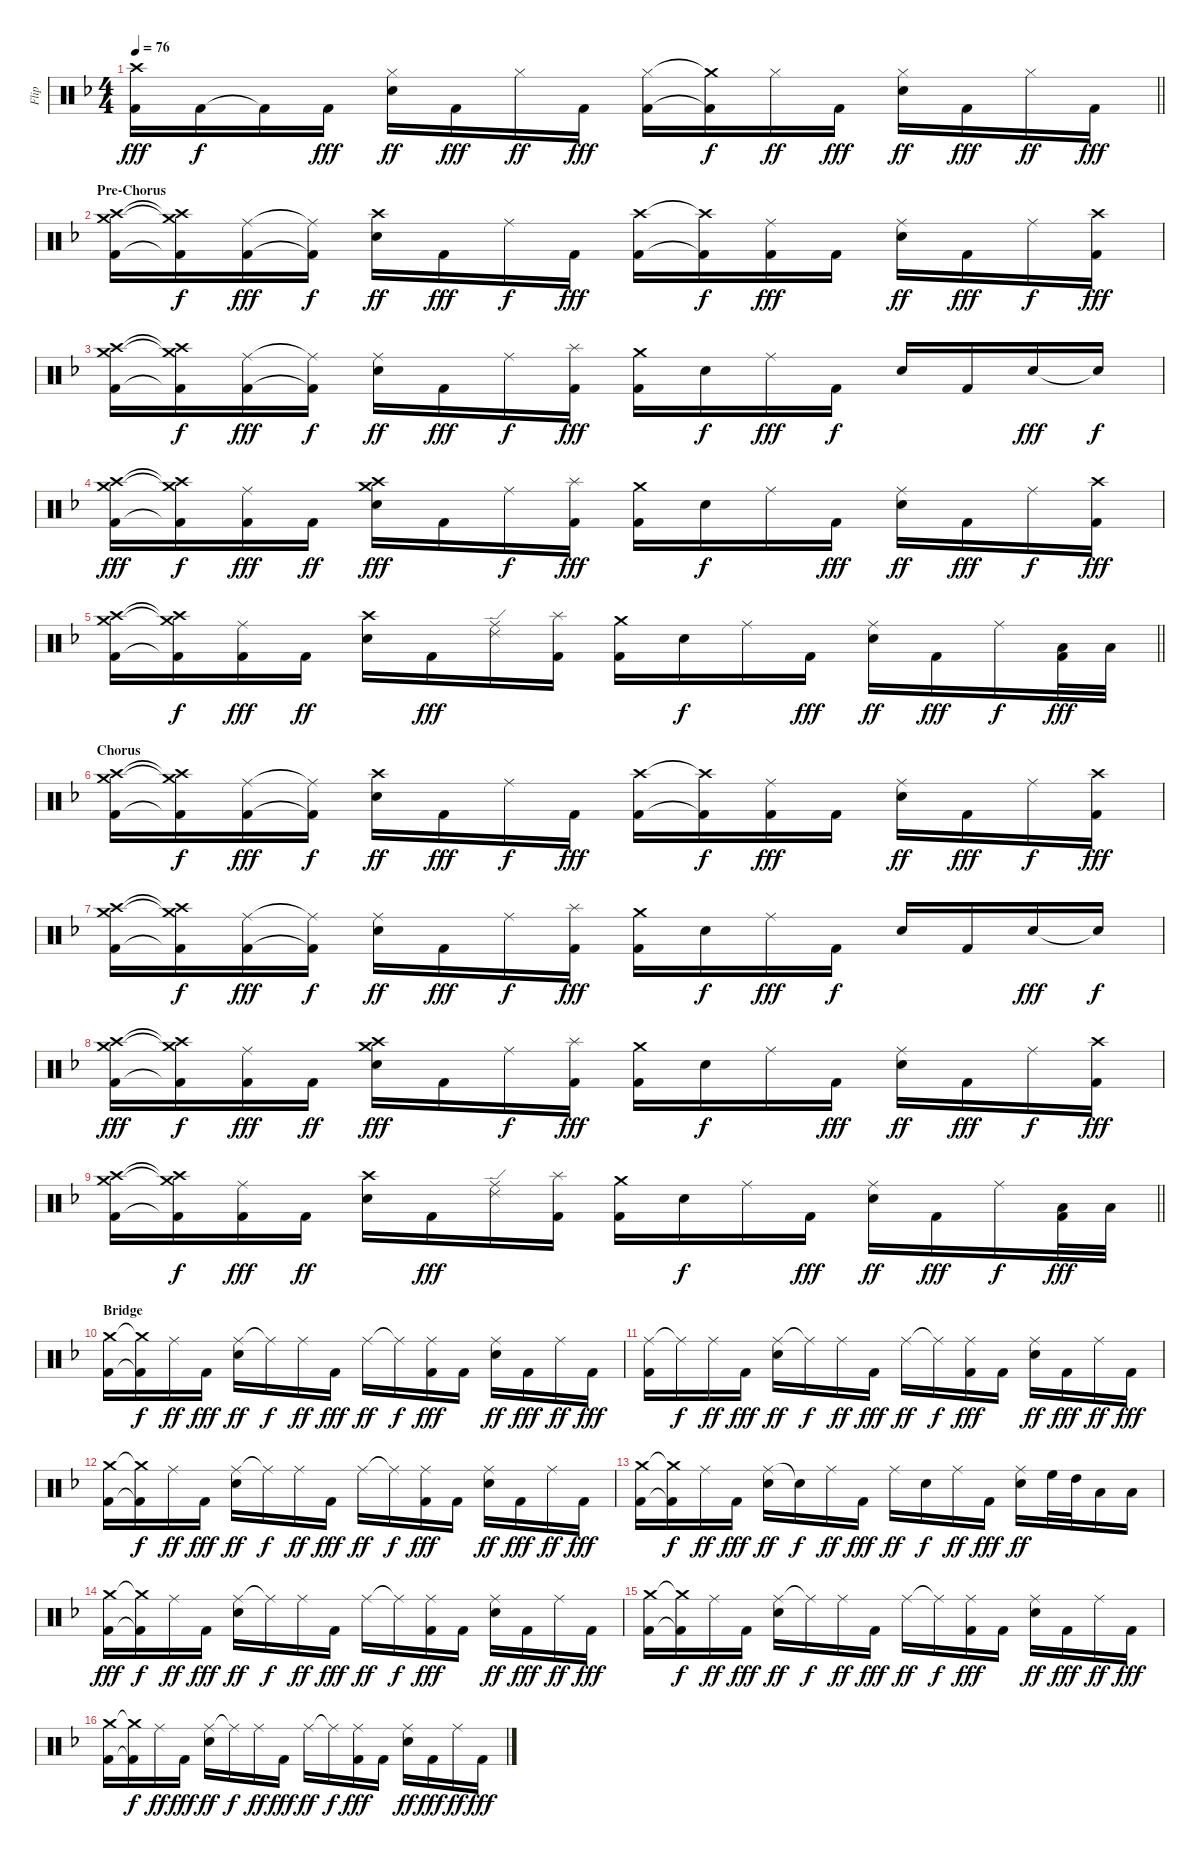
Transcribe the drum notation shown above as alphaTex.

\track ("Flip" "Flip") {instrument percussion}
\staff {score}
\articulation defaults
\ts (4 4)
\tempo 76
\clef neutral
\barLineRight lightlight
\ks f
("Crash high (hit)" "Kick (hit) 2").16{dy fff} "Kick (hit) 2".16{dy f} "Kick (hit) 2"{t}.16 "Kick (hit) 2".16{dy fff} ("Hi-Hat (closed)" "Snare (hit) 2").16{dy ff} "Kick (hit) 2".16{dy fff} "Hi-Hat (closed)".16{dy ff} "Kick (hit) 2".16{dy fff} ("Hi-Hat (closed)" "Kick (hit) 2").16 ("Crash medium (hit)"{t} "Kick (hit) 2"{t}).16{dy f} "Hi-Hat (closed)".16{dy ff} "Kick (hit) 2".16{dy fff} ("Hi-Hat (closed)" "Snare (hit) 2").16{dy ff} "Kick (hit) 2".16{dy fff} "Hi-Hat (closed)".16{dy ff} "Kick (hit) 2".16{dy fff} |
\section ("" "Pre-Chorus")
("Crash medium (hit)" "Crash high (hit)" "Kick (hit) 2").16 ("Crash medium (hit)"{t} "Crash high (hit)"{t} "Kick (hit) 2"{t}).16{dy f} ("Ride (middle)" "Kick (hit) 2").16{dy fff} ("Ride (middle)"{t} "Kick (hit) 2"{t}).16{dy f} ("Crash high (hit)" "Snare (hit) 2").16{dy ff} "Kick (hit) 2".16{dy fff} "Ride (middle)".16{dy f} "Kick (hit) 2".16{dy fff} ("Crash high (hit)" "Kick (hit) 2").16 ("Crash high (hit)"{t} "Kick (hit) 2"{t}).16{dy f} ("Ride (middle)" "Kick (hit) 2").16{dy fff} "Kick (hit) 2".16 ("Ride (middle)" "Snare (hit) 2").16{dy ff} "Kick (hit) 2".16{dy fff} "Ride (middle)".16{dy f} ("Crash high (hit)" "Kick (hit) 2").16{dy fff} |
("Crash medium (hit)" "Crash high (hit)" "Kick (hit) 2").16 ("Crash medium (hit)"{t} "Crash high (hit)"{t} "Kick (hit) 2"{t}).16{dy f} ("Ride (middle)" "Kick (hit) 2").16{dy fff} ("Ride (middle)"{t} "Kick (hit) 2"{t}).16{dy f} ("Ride (middle)" "Snare (hit) 2").16{dy ff} "Kick (hit) 2".16{dy fff} "Ride (middle)".16{dy f} ("Splash (hit)" "Kick (hit) 2").16{dy fff} ("Crash medium (hit)" "Kick (hit) 2").16 "Snare (hit) 2".16{dy f} "Ride (middle)".16{dy fff} "Kick (hit) 2".16{dy f} "Snare (hit) 2".16 "Kick (hit) 2".16 "Snare (hit) 2".16{dy fff} "Snare (hit) 2"{t}.16{dy f} |
("Crash medium (hit)" "Crash high (hit)" "Kick (hit) 2").16{dy fff} ("Crash medium (hit)"{t} "Crash high (hit)"{t} "Kick (hit) 2"{t}).16{dy f} ("Ride (middle)" "Kick (hit) 2").16{dy fff} "Kick (hit) 2".16{dy ff} ("Crash high (hit)" "Crash medium (hit)" "Snare (hit) 2").16{dy fff} "Kick (hit) 2".16 "Ride (middle)".16{dy f} ("Splash (hit)" "Kick (hit) 2").16{dy fff} ("Crash medium (hit)" "Kick (hit) 2").16 "Snare (hit) 2".16{dy f} "Ride (middle)".16 "Kick (hit) 2".16{dy fff} ("Ride (middle)" "Snare (hit) 2").16{dy ff} "Kick (hit) 2".16{dy fff} "Ride (middle)".16{dy f} ("Crash high (hit)" "Kick (hit) 2").16{dy fff} |
\barLineRight lightlight
("Crash medium (hit)" "Crash high (hit)" "Kick (hit) 2").16 ("Crash medium (hit)"{t} "Crash high (hit)"{t} "Kick (hit) 2"{t}).16{dy f} ("Ride (middle)" "Kick (hit) 2").16{dy fff} "Kick (hit) 2".16{dy ff} ("Crash high (hit)" "Snare (hit) 2").16 "Kick (hit) 2".16{dy fff} ("Ride (middle)" "Ride (edge) 2").16 ("Splash (hit)" "Kick (hit) 2").16 ("Crash medium (hit)" "Kick (hit) 2").16 "Snare (hit) 2".16{dy f} "Ride (middle)".16 "Kick (hit) 2".16{dy fff} ("Ride (middle)" "Snare (hit) 2").16{dy ff} "Kick (hit) 2".16{dy fff} "Ride (middle)".16{dy f} ("Low Tom (hit)" "Kick (hit) 2").32{dy fff} "Low Tom (hit)".32 |
\section ("" "Chorus")
("Crash medium (hit)" "Crash high (hit)" "Kick (hit) 2").16 ("Crash medium (hit)"{t} "Crash high (hit)"{t} "Kick (hit) 2"{t}).16{dy f} ("Ride (middle)" "Kick (hit) 2").16{dy fff} ("Ride (middle)"{t} "Kick (hit) 2"{t}).16{dy f} ("Crash high (hit)" "Snare (hit) 2").16{dy ff} "Kick (hit) 2".16{dy fff} "Ride (middle)".16{dy f} "Kick (hit) 2".16{dy fff} ("Crash high (hit)" "Kick (hit) 2").16 ("Crash high (hit)"{t} "Kick (hit) 2"{t}).16{dy f} ("Ride (middle)" "Kick (hit) 2").16{dy fff} "Kick (hit) 2".16 ("Ride (middle)" "Snare (hit) 2").16{dy ff} "Kick (hit) 2".16{dy fff} "Ride (middle)".16{dy f} ("Crash high (hit)" "Kick (hit) 2").16{dy fff} |
("Crash medium (hit)" "Crash high (hit)" "Kick (hit) 2").16 ("Crash medium (hit)"{t} "Crash high (hit)"{t} "Kick (hit) 2"{t}).16{dy f} ("Ride (middle)" "Kick (hit) 2").16{dy fff} ("Ride (middle)"{t} "Kick (hit) 2"{t}).16{dy f} ("Ride (middle)" "Snare (hit) 2").16{dy ff} "Kick (hit) 2".16{dy fff} "Ride (middle)".16{dy f} ("Splash (hit)" "Kick (hit) 2").16{dy fff} ("Crash medium (hit)" "Kick (hit) 2").16 "Snare (hit) 2".16{dy f} "Ride (middle)".16{dy fff} "Kick (hit) 2".16{dy f} "Snare (hit) 2".16 "Kick (hit) 2".16 "Snare (hit) 2".16{dy fff} "Snare (hit) 2"{t}.16{dy f} |
("Crash medium (hit)" "Crash high (hit)" "Kick (hit) 2").16{dy fff} ("Crash medium (hit)"{t} "Crash high (hit)"{t} "Kick (hit) 2"{t}).16{dy f} ("Ride (middle)" "Kick (hit) 2").16{dy fff} "Kick (hit) 2".16{dy ff} ("Crash high (hit)" "Crash medium (hit)" "Snare (hit) 2").16{dy fff} "Kick (hit) 2".16 "Ride (middle)".16{dy f} ("Splash (hit)" "Kick (hit) 2").16{dy fff} ("Crash medium (hit)" "Kick (hit) 2").16 "Snare (hit) 2".16{dy f} "Ride (middle)".16 "Kick (hit) 2".16{dy fff} ("Ride (middle)" "Snare (hit) 2").16{dy ff} "Kick (hit) 2".16{dy fff} "Ride (middle)".16{dy f} ("Crash high (hit)" "Kick (hit) 2").16{dy fff} |
\barLineRight lightlight
("Crash medium (hit)" "Crash high (hit)" "Kick (hit) 2").16 ("Crash medium (hit)"{t} "Crash high (hit)"{t} "Kick (hit) 2"{t}).16{dy f} ("Ride (middle)" "Kick (hit) 2").16{dy fff} "Kick (hit) 2".16{dy ff} ("Crash high (hit)" "Snare (hit) 2").16 "Kick (hit) 2".16{dy fff} ("Ride (middle)" "Ride (edge) 2").16 ("Splash (hit)" "Kick (hit) 2").16 ("Crash medium (hit)" "Kick (hit) 2").16 "Snare (hit) 2".16{dy f} "Ride (middle)".16 "Kick (hit) 2".16{dy fff} ("Ride (middle)" "Snare (hit) 2").16{dy ff} "Kick (hit) 2".16{dy fff} "Ride (middle)".16{dy f} ("Low Tom (hit)" "Kick (hit) 2").32{dy fff} "Low Tom (hit)".32 |
\section ("" "Bridge")
("Crash medium (hit)" "Kick (hit) 2").16 ("Crash medium (hit)"{t} "Kick (hit) 2"{t}).16{dy f} "Ride (middle)".16{dy ff} "Kick (hit) 2".16{dy fff} ("Ride (middle)" "Snare (hit) 2").16{dy ff} "Ride (middle)"{t}.16{dy f} "Ride (middle)".16{dy ff} "Kick (hit) 2".16{dy fff} "Ride (middle)".16{dy ff} "Ride (middle)"{t}.16{dy f} ("Ride (middle)" "Kick (hit) 2").16{dy fff} "Kick (hit) 2".16 ("Ride (middle)" "Snare (hit) 2").16{dy ff} "Kick (hit) 2".16{dy fff} "Ride (middle)".16{dy ff} "Kick (hit) 2".16{dy fff} |
("Ride (middle)" "Kick (hit) 2").16 "Ride (middle)"{t}.16{dy f} "Ride (middle)".16{dy ff} "Kick (hit) 2".16{dy fff} ("Ride (middle)" "Snare (hit) 2").16{dy ff} "Ride (middle)"{t}.16{dy f} "Ride (middle)".16{dy ff} "Kick (hit) 2".16{dy fff} "Ride (middle)".16{dy ff} "Ride (middle)"{t}.16{dy f} ("Ride (middle)" "Kick (hit) 2").16{dy fff} "Kick (hit) 2".16 ("Ride (middle)" "Snare (hit) 2").16{dy ff} "Kick (hit) 2".16{dy fff} "Ride (middle)".16{dy ff} "Kick (hit) 2".16{dy fff} |
("Crash medium (hit)" "Kick (hit) 2").16 ("Crash medium (hit)"{t} "Kick (hit) 2"{t}).16{dy f} "Ride (middle)".16{dy ff} "Kick (hit) 2".16{dy fff} ("Ride (middle)" "Snare (hit) 2").16{dy ff} "Ride (middle)"{t}.16{dy f} "Ride (middle)".16{dy ff} "Kick (hit) 2".16{dy fff} "Ride (middle)".16{dy ff} "Ride (middle)"{t}.16{dy f} ("Ride (middle)" "Kick (hit) 2").16{dy fff} "Kick (hit) 2".16 ("Ride (middle)" "Snare (hit) 2").16{dy ff} "Kick (hit) 2".16{dy fff} "Ride (middle)".16{dy ff} "Kick (hit) 2".16{dy fff} |
("Crash medium (hit)" "Kick (hit) 2").16 ("Crash medium (hit)"{t} "Kick (hit) 2"{t}).16{dy f} "Ride (middle)".16{dy ff} "Kick (hit) 2".16{dy fff} ("Ride (middle)" "Snare (hit) 2").16{dy ff} "Snare (hit) 2"{t}.16{dy f} "Ride (middle)".16{dy ff} "Kick (hit) 2".16{dy fff} "Ride (middle)".16{dy ff} "Snare (hit) 2".16{dy f} "Ride (middle)".16{dy ff} "Kick (hit) 2".16{dy fff} ("Ride (middle)" "Snare (hit) 2").16{dy ff} "High Floor Tom (hit)".32 "High Tom (hit)".32 "Low Tom (hit)".16 "Low Tom (hit)".16 |
("Crash medium (hit)" "Kick (hit) 2").16{dy fff} ("Crash medium (hit)"{t} "Kick (hit) 2"{t}).16{dy f} "Ride (middle)".16{dy ff} "Kick (hit) 2".16{dy fff} ("Ride (middle)" "Snare (hit) 2").16{dy ff} "Ride (middle)"{t}.16{dy f} "Ride (middle)".16{dy ff} "Kick (hit) 2".16{dy fff} "Ride (middle)".16{dy ff} "Ride (middle)"{t}.16{dy f} ("Ride (middle)" "Kick (hit) 2").16{dy fff} "Kick (hit) 2".16 ("Ride (middle)" "Snare (hit) 2").16{dy ff} "Kick (hit) 2".16{dy fff} "Ride (middle)".16{dy ff} "Kick (hit) 2".16{dy fff} |
("Crash medium (hit)" "Kick (hit) 2").16 ("Crash medium (hit)"{t} "Kick (hit) 2"{t}).16{dy f} "Ride (middle)".16{dy ff} "Kick (hit) 2".16{dy fff} ("Ride (middle)" "Snare (hit) 2").16{dy ff} "Ride (middle)"{t}.16{dy f} "Ride (middle)".16{dy ff} "Kick (hit) 2".16{dy fff} "Ride (middle)".16{dy ff} "Ride (middle)"{t}.16{dy f} ("Ride (middle)" "Kick (hit) 2").16{dy fff} "Kick (hit) 2".16 ("Ride (middle)" "Snare (hit) 2").16{dy ff} "Kick (hit) 2".16{dy fff} "Ride (middle)".16{dy ff} "Kick (hit) 2".16{dy fff} |
("Crash medium (hit)" "Kick (hit) 2").16 ("Crash medium (hit)"{t} "Kick (hit) 2"{t}).16{dy f} "Ride (middle)".16{dy ff} "Kick (hit) 2".16{dy fff} ("Ride (middle)" "Snare (hit) 2").16{dy ff} "Ride (middle)"{t}.16{dy f} "Ride (middle)".16{dy ff} "Kick (hit) 2".16{dy fff} "Ride (middle)".16{dy ff} "Ride (middle)"{t}.16{dy f} ("Ride (middle)" "Kick (hit) 2").16{dy fff} "Kick (hit) 2".16 ("Ride (middle)" "Snare (hit) 2").16{dy ff} "Kick (hit) 2".16{dy fff} "Ride (middle)".16{dy ff} "Kick (hit) 2".16{dy fff}
